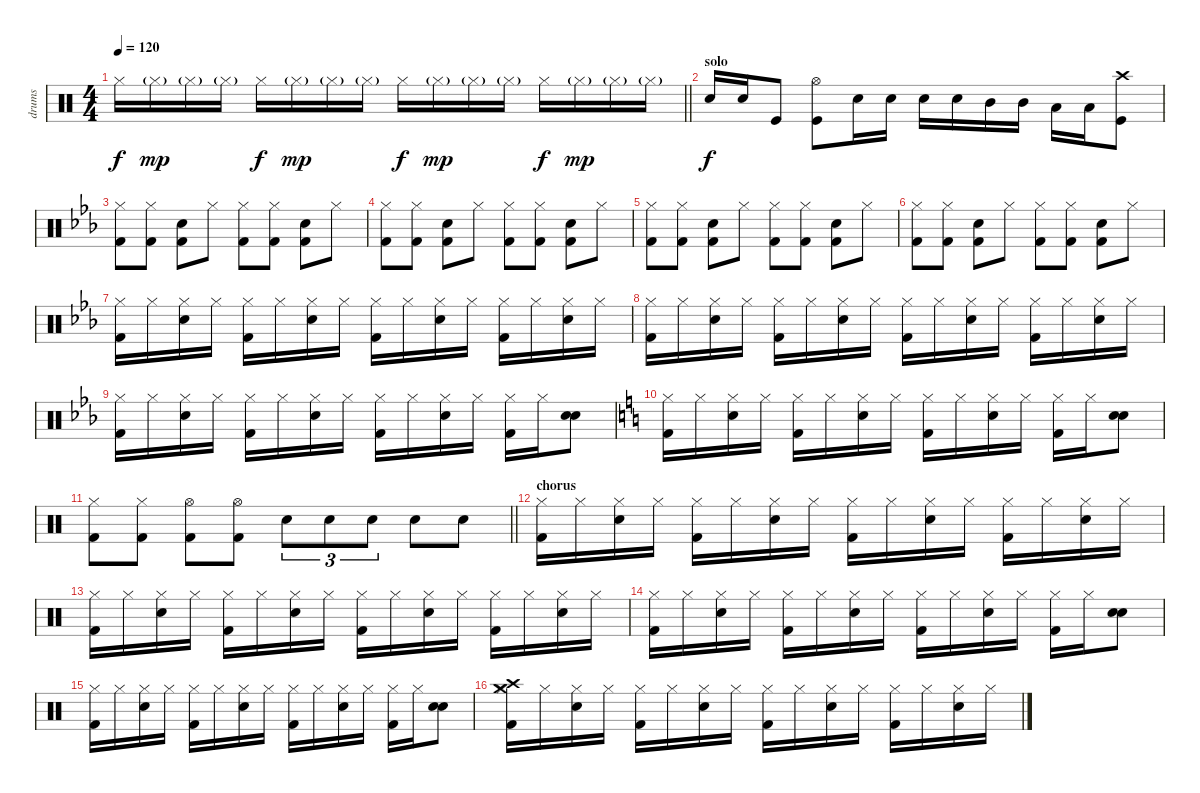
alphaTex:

\track ("drums" "drums") {instrument percussion}
\staff {score}
\articulation defaults
\ts (4 4)
\tempo 120
\clef neutral
\barLineRight lightlight
\ks c "Hi-Hat (closed)".16{dy f} "Hi-Hat (closed)"{g}.16{dy mp} "Hi-Hat (closed)"{g}.16 "Hi-Hat (closed)"{g}.16 "Hi-Hat (closed)".16{dy f} "Hi-Hat (closed)"{g}.16{dy mp} "Hi-Hat (closed)"{g}.16 "Hi-Hat (closed)"{g}.16 "Hi-Hat (closed)".16{dy f} "Hi-Hat (closed)"{g}.16{dy mp} "Hi-Hat (closed)"{g}.16 "Hi-Hat (closed)"{g}.16 "Hi-Hat (closed)".16{dy f} "Hi-Hat (closed)"{g}.16{dy mp} "Hi-Hat (closed)"{g}.16 "Hi-Hat (closed)"{g}.16
|
\section ("" "solo")
"Snare (hit) 2".16{dy f} "Snare (hit) 2".16 "Kick (hit)".8 ("Hi-Hat (open)" "Kick (hit)").8 "Snare (hit) 2".16 "Snare (hit) 2".16 "Snare (hit) 2".16 "Snare (hit) 2".16 "Mid Tom (hit)".16 "Mid Tom (hit)".16 "Low Tom (hit)".16 "Low Tom (hit)".16 ("Crash high (hit)" "Kick (hit)").8 |
\ks eb
("Kick (hit) 2" "Hi-Hat (closed)").8 ("Kick (hit) 2" "Hi-Hat (closed)").8 ("Kick (hit) 2" "Snare (hit) 2").8 "Hi-Hat (closed)".8 ("Kick (hit) 2" "Hi-Hat (closed)").8 ("Kick (hit) 2" "Hi-Hat (closed)").8 ("Kick (hit) 2" "Snare (hit) 2").8 "Hi-Hat (closed)".8 |
("Kick (hit) 2" "Hi-Hat (closed)").8 ("Kick (hit) 2" "Hi-Hat (closed)").8 ("Kick (hit) 2" "Snare (hit) 2").8 "Hi-Hat (closed)".8 ("Kick (hit) 2" "Hi-Hat (closed)").8 ("Kick (hit) 2" "Hi-Hat (closed)").8 ("Kick (hit) 2" "Snare (hit) 2").8 "Hi-Hat (closed)".8 |
("Kick (hit) 2" "Hi-Hat (closed)").8 ("Kick (hit) 2" "Hi-Hat (closed)").8 ("Kick (hit) 2" "Snare (hit) 2").8 "Hi-Hat (closed)".8 ("Kick (hit) 2" "Hi-Hat (closed)").8 ("Kick (hit) 2" "Hi-Hat (closed)").8 ("Kick (hit) 2" "Snare (hit) 2").8 "Hi-Hat (closed)".8 |
("Kick (hit) 2" "Hi-Hat (closed)").8 ("Kick (hit) 2" "Hi-Hat (closed)").8 ("Kick (hit) 2" "Snare (hit) 2").8 "Hi-Hat (closed)".8 ("Kick (hit) 2" "Hi-Hat (closed)").8 ("Kick (hit) 2" "Hi-Hat (closed)").8 ("Kick (hit) 2" "Snare (hit) 2").8 "Hi-Hat (closed)".8 |
("Hi-Hat (closed)" "Kick (hit) 2").16 "Hi-Hat (closed)".16 ("Hi-Hat (closed)" "Electric Snare (hit)").16 "Hi-Hat (closed)".16 ("Hi-Hat (closed)" "Kick (hit) 2").16 "Hi-Hat (closed)".16 ("Hi-Hat (closed)" "Electric Snare (hit)").16 "Hi-Hat (closed)".16 ("Hi-Hat (closed)" "Kick (hit) 2").16 "Hi-Hat (closed)".16 ("Hi-Hat (closed)" "Electric Snare (hit)").16 "Hi-Hat (closed)".16 ("Hi-Hat (closed)" "Kick (hit) 2").16 "Hi-Hat (closed)".16 ("Hi-Hat (closed)" "Electric Snare (hit)").16 "Hi-Hat (closed)".16 |
("Hi-Hat (closed)" "Kick (hit) 2").16 "Hi-Hat (closed)".16 ("Hi-Hat (closed)" "Electric Snare (hit)").16 "Hi-Hat (closed)".16 ("Hi-Hat (closed)" "Kick (hit) 2").16 "Hi-Hat (closed)".16 ("Hi-Hat (closed)" "Electric Snare (hit)").16 "Hi-Hat (closed)".16 ("Hi-Hat (closed)" "Kick (hit) 2").16 "Hi-Hat (closed)".16 ("Hi-Hat (closed)" "Electric Snare (hit)").16 "Hi-Hat (closed)".16 ("Hi-Hat (closed)" "Kick (hit) 2").16 "Hi-Hat (closed)".16 ("Hi-Hat (closed)" "Electric Snare (hit)").16 "Hi-Hat (closed)".16 |
("Hi-Hat (closed)" "Kick (hit) 2").16 "Hi-Hat (closed)".16 ("Hi-Hat (closed)" "Electric Snare (hit)").16 "Hi-Hat (closed)".16 ("Hi-Hat (closed)" "Kick (hit) 2").16 "Hi-Hat (closed)".16 ("Hi-Hat (closed)" "Electric Snare (hit)").16 "Hi-Hat (closed)".16 ("Hi-Hat (closed)" "Kick (hit) 2").16 "Hi-Hat (closed)".16 ("Hi-Hat (closed)" "Electric Snare (hit)").16 "Hi-Hat (closed)".16 ("Hi-Hat (closed)" "Kick (hit) 2").16 "Hi-Hat (closed)".16 ("Electric Snare (hit)" "Electric Snare (hit)").8 |
\ks c
("Hi-Hat (closed)" "Kick (hit) 2").16 "Hi-Hat (closed)".16 ("Hi-Hat (closed)" "Electric Snare (hit)").16 "Hi-Hat (closed)".16 ("Hi-Hat (closed)" "Kick (hit) 2").16 "Hi-Hat (closed)".16 ("Hi-Hat (closed)" "Electric Snare (hit)").16 "Hi-Hat (closed)".16 ("Hi-Hat (closed)" "Kick (hit) 2").16 "Hi-Hat (closed)".16 ("Hi-Hat (closed)" "Electric Snare (hit)").16 "Hi-Hat (closed)".16 ("Hi-Hat (closed)" "Kick (hit) 2").16 "Hi-Hat (closed)".16 ("Electric Snare (hit)" "Electric Snare (hit)").8 |
\barLineRight lightlight
("Kick (hit) 2" "Hi-Hat (closed)").8 ("Kick (hit) 2" "Hi-Hat (closed)").8 ("Kick (hit) 2" "Hi-Hat (open)").8 ("Kick (hit) 2" "Hi-Hat (open)").8 "Snare (hit) 2".8{tu (3 2)} "Snare (hit) 2".8{tu (3 2)} "Snare (hit) 2".8{tu (3 2)} "Snare (hit) 2".8 "Snare (hit) 2".8 |
\section ("" "chorus")
("Hi-Hat (closed)" "Kick (hit) 2").16 "Hi-Hat (closed)".16 ("Hi-Hat (closed)" "Electric Snare (hit)").16 "Hi-Hat (closed)".16 ("Hi-Hat (closed)" "Kick (hit) 2").16 "Hi-Hat (closed)".16 ("Hi-Hat (closed)" "Electric Snare (hit)").16 "Hi-Hat (closed)".16 ("Hi-Hat (closed)" "Kick (hit) 2").16 "Hi-Hat (closed)".16 ("Hi-Hat (closed)" "Electric Snare (hit)").16 "Hi-Hat (closed)".16 ("Hi-Hat (closed)" "Kick (hit) 2").16 "Hi-Hat (closed)".16 ("Hi-Hat (closed)" "Electric Snare (hit)").16 "Hi-Hat (closed)".16 |
("Hi-Hat (closed)" "Kick (hit) 2").16 "Hi-Hat (closed)".16 ("Hi-Hat (closed)" "Electric Snare (hit)").16 "Hi-Hat (closed)".16 ("Hi-Hat (closed)" "Kick (hit) 2").16 "Hi-Hat (closed)".16 ("Hi-Hat (closed)" "Electric Snare (hit)").16 "Hi-Hat (closed)".16 ("Hi-Hat (closed)" "Kick (hit) 2").16 "Hi-Hat (closed)".16 ("Hi-Hat (closed)" "Electric Snare (hit)").16 "Hi-Hat (closed)".16 ("Hi-Hat (closed)" "Kick (hit) 2").16 "Hi-Hat (closed)".16 ("Hi-Hat (closed)" "Electric Snare (hit)").16 "Hi-Hat (closed)".16 |
("Hi-Hat (closed)" "Kick (hit) 2").16 "Hi-Hat (closed)".16 ("Hi-Hat (closed)" "Electric Snare (hit)").16 "Hi-Hat (closed)".16 ("Hi-Hat (closed)" "Kick (hit) 2").16 "Hi-Hat (closed)".16 ("Hi-Hat (closed)" "Electric Snare (hit)").16 "Hi-Hat (closed)".16 ("Hi-Hat (closed)" "Kick (hit) 2").16 "Hi-Hat (closed)".16 ("Hi-Hat (closed)" "Electric Snare (hit)").16 "Hi-Hat (closed)".16 ("Hi-Hat (closed)" "Kick (hit) 2").16 "Hi-Hat (closed)".16 ("Electric Snare (hit)" "Electric Snare (hit)").8 |
("Hi-Hat (closed)" "Kick (hit) 2").16 "Hi-Hat (closed)".16 ("Hi-Hat (closed)" "Electric Snare (hit)").16 "Hi-Hat (closed)".16 ("Hi-Hat (closed)" "Kick (hit) 2").16 "Hi-Hat (closed)".16 ("Hi-Hat (closed)" "Electric Snare (hit)").16 "Hi-Hat (closed)".16 ("Hi-Hat (closed)" "Kick (hit) 2").16 "Hi-Hat (closed)".16 ("Hi-Hat (closed)" "Electric Snare (hit)").16 "Hi-Hat (closed)".16 ("Hi-Hat (closed)" "Kick (hit) 2").16 "Hi-Hat (closed)".16 ("Electric Snare (hit)" "Electric Snare (hit)").8 |
("Crash medium (hit)" "Hi-Hat (closed)" "Crash high (hit)" "Kick (hit) 2").16 "Hi-Hat (closed)".16 ("Hi-Hat (closed)" "Electric Snare (hit)").16 "Hi-Hat (closed)".16 ("Hi-Hat (closed)" "Kick (hit) 2").16 "Hi-Hat (closed)".16 ("Hi-Hat (closed)" "Electric Snare (hit)").16 "Hi-Hat (closed)".16 ("Hi-Hat (closed)" "Kick (hit) 2").16 "Hi-Hat (closed)".16 ("Hi-Hat (closed)" "Electric Snare (hit)").16 "Hi-Hat (closed)".16 ("Hi-Hat (closed)" "Kick (hit) 2").16 "Hi-Hat (closed)".16 ("Hi-Hat (closed)" "Electric Snare (hit)").16 "Hi-Hat (closed)".16
